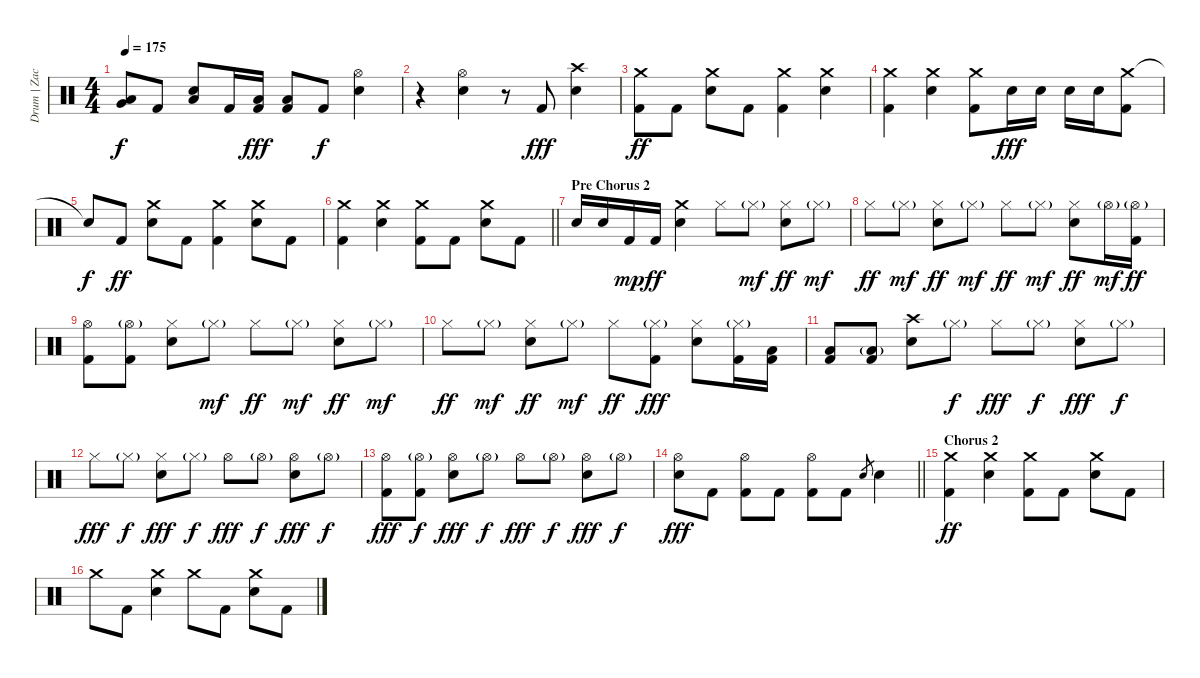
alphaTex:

\track ("Drum | Zac" "Drum | Zac") {instrument percussion}
\staff {score}
\articulation defaults
\ts (4 4)
\tempo 175
\clef neutral
\ks c
("Low Tom (hit)" "Very Low Tom (hit)").8{dy f} "Kick (hit) 2".8 ("Low Tom (hit)" "Electric Snare (hit)").8 "Kick (hit) 2".16 ("Low Tom (hit)" "Kick (hit) 2").16{dy fff} ("Low Tom (hit)" "Kick (hit) 2").8 "Kick (hit) 2".8{dy f} ("Hi-Hat (open)" "Electric Snare (hit)").4 |
r.4 ("Hi-Hat (open)" "Electric Snare (hit)").4 r.8 "Kick (hit) 2".8{dy fff} ("Crash high (hit)" "Electric Snare (hit)").4 |
("Crash medium (hit)" "Kick (hit) 2").8{dy ff} "Kick (hit) 2".8 ("Crash medium (hit)" "Electric Snare (hit)").8 "Kick (hit) 2".8 ("Crash medium (hit)" "Kick (hit) 2").4 ("Crash medium (hit)" "Electric Snare (hit)").4 |
("Crash medium (hit)" "Kick (hit) 2").4 ("Crash medium (hit)" "Electric Snare (hit)").4 ("Crash medium (hit)" "Kick (hit) 2").8 "Electric Snare (hit)".16{dy fff} "Electric Snare (hit)".16 "Electric Snare (hit)".16 "Electric Snare (hit)".16 ("Crash medium (hit)" "Kick (hit) 2").8 |
"Snare (hit)"{t}.8{dy f} "Kick (hit) 2".8{dy ff} ("Crash medium (hit)" "Electric Snare (hit)").8 "Kick (hit) 2".8 ("Crash medium (hit)" "Kick (hit) 2").4 ("Crash medium (hit)" "Electric Snare (hit)").8 "Kick (hit) 2".8 |
\barLineRight lightlight
("Crash medium (hit)" "Kick (hit) 2").4 ("Crash medium (hit)" "Electric Snare (hit)").4 ("Crash medium (hit)" "Kick (hit) 2").8 "Kick (hit) 2".8 ("Crash medium (hit)" "Electric Snare (hit)").8 "Kick (hit) 2".8 |
\section ("" "Pre Chorus 2")
"Electric Snare (hit)".16 "Electric Snare (hit)".16 "Kick (hit) 2".16{dy mp} "Kick (hit) 2".16{dy ff} ("Crash medium (hit)" "Electric Snare (hit)").4 "Hi-Hat (closed)".8 "Hi-Hat (closed)"{g}.8{dy mf} ("Hi-Hat (closed)" "Electric Snare (hit)").8{dy ff} "Hi-Hat (closed)"{g}.8{dy mf} |
"Hi-Hat (closed)".8{dy ff} "Hi-Hat (closed)"{g}.8{dy mf} ("Hi-Hat (closed)" "Electric Snare (hit)").8{dy ff} "Hi-Hat (closed)"{g}.8{dy mf} "Hi-Hat (closed)".8{dy ff} "Hi-Hat (closed)"{g}.8{dy mf} ("Hi-Hat (closed)" "Electric Snare (hit)").8{dy ff} "Hi-Hat (open)"{g}.16{dy mf} ("Hi-Hat (open)"{g} "Kick (hit) 2").16{dy ff} |
("Hi-Hat (open)" "Kick (hit) 2").8 ("Hi-Hat (open)"{g} "Kick (hit) 2").8 ("Hi-Hat (closed)" "Electric Snare (hit)").8 "Hi-Hat (closed)"{g}.8{dy mf} "Hi-Hat (closed)".8{dy ff} "Hi-Hat (closed)"{g}.8{dy mf} ("Hi-Hat (closed)" "Electric Snare (hit)").8{dy ff} "Hi-Hat (closed)"{g}.8{dy mf} |
"Hi-Hat (closed)".8{dy ff} "Hi-Hat (closed)"{g}.8{dy mf} ("Hi-Hat (closed)" "Electric Snare (hit)").8{dy ff} "Hi-Hat (closed)"{g}.8{dy mf} "Hi-Hat (closed)".8{dy ff} ("Hi-Hat (closed)"{g} "Kick (hit) 2").8{dy fff} ("Hi-Hat (closed)" "Electric Snare (hit)").8 ("Hi-Hat (closed)"{g} "Kick (hit) 2").16 ("Low Floor Tom (hit)" "Kick (hit) 2").16 |
("Low Floor Tom (hit)" "Kick (hit) 2").8 ("Low Floor Tom (hit)"{g} "Kick (hit) 2").8 ("Crash high (hit)" "Electric Snare (hit)").8 "Hi-Hat (closed)"{g}.8{dy f} "Hi-Hat (closed)".8{dy fff} "Hi-Hat (closed)"{g}.8{dy f} ("Hi-Hat (closed)" "Electric Snare (hit)").8{dy fff} "Hi-Hat (closed)"{g}.8{dy f} |
"Hi-Hat (closed)".8{dy fff} "Hi-Hat (closed)"{g}.8{dy f} ("Hi-Hat (closed)" "Electric Snare (hit)").8{dy fff} "Hi-Hat (closed)"{g}.8{dy f} "Hi-Hat (open)".8{dy fff} "Hi-Hat (open)"{g}.8{dy f} ("Hi-Hat (open)" "Electric Snare (hit)").8{dy fff} "Hi-Hat (open)"{g}.8{dy f} |
("Hi-Hat (open)" "Kick (hit) 2").8{dy fff} ("Hi-Hat (open)"{g} "Kick (hit) 2").8{dy f} ("Hi-Hat (open)" "Electric Snare (hit)").8{dy fff} "Hi-Hat (open)"{g}.8{dy f} "Hi-Hat (open)".8{dy fff} "Hi-Hat (open)"{g}.8{dy f} ("Hi-Hat (open)" "Electric Snare (hit)").8{dy fff} "Hi-Hat (open)"{g}.8{dy f} |
\barLineRight lightlight
("Hi-Hat (open)" "Electric Snare (hit)").8{dy fff} "Kick (hit) 2".8 ("Hi-Hat (open)" "Kick (hit) 2").8 "Kick (hit) 2".8 ("Hi-Hat (open)" "Kick (hit) 2").8 "Kick (hit) 2".8 "Electric Snare (hit)".8{gr} "Electric Snare (hit)".4 |
\section ("" "Chorus 2")
("Crash medium (hit)" "Kick (hit) 2").4{dy ff} ("Crash medium (hit)" "Electric Snare (hit)").4 ("Crash medium (hit)" "Kick (hit) 2").8 "Kick (hit) 2".8 ("Crash medium (hit)" "Electric Snare (hit)").8 "Kick (hit) 2".8 |
"Crash medium (hit)".8 "Kick (hit) 2".8 ("Crash medium (hit)" "Electric Snare (hit)").4 "Crash medium (hit)".8 "Kick (hit) 2".8 ("Crash medium (hit)" "Electric Snare (hit)").8 "Kick (hit) 2".8
